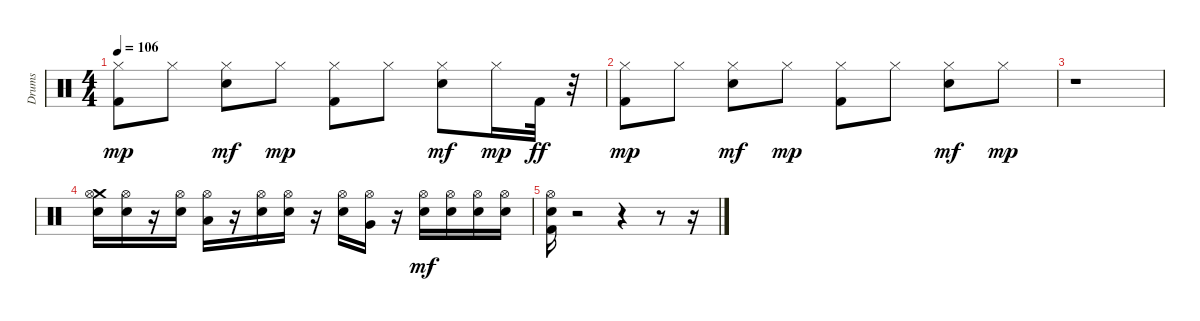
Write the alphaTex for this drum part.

\track ("Drums" "Drums") {instrument percussion}
\staff {score}
\articulation defaults
\ts (4 4)
\tempo 106
\clef neutral
\ks c
("Kick (hit) 2" "Hi-Hat (closed)").8{dy mp} "Hi-Hat (closed)".8 ("Hi-Hat (closed)" "Snare (hit) 2").8{dy mf} "Hi-Hat (closed)".8{dy mp} ("Hi-Hat (closed)" "Kick (hit) 2").8 "Hi-Hat (closed)".8 ("Hi-Hat (closed)" "Snare (hit) 2").8{dy mf} "Hi-Hat (closed)".16{dy mp} "Kick (hit) 2".32{dy ff} r.32 |
("Kick (hit) 2" "Hi-Hat (closed)").8{dy mp} "Hi-Hat (closed)".8 ("Hi-Hat (closed)" "Snare (hit) 2").8{dy mf} "Hi-Hat (closed)".8{dy mp} ("Hi-Hat (closed)" "Kick (hit) 2").8 "Hi-Hat (closed)".8 ("Hi-Hat (closed)" "Snare (hit) 2").8{dy mf} "Hi-Hat (closed)".8{dy mp} |
r.1 |
("Crash medium (hit)" "Snare (hit) 2" "Hi-Hat (open)").16 ("Snare (hit) 2" "Hi-Hat (open)").16 r.16 ("Snare (hit) 2" "Hi-Hat (open)").16 ("Low Tom (hit)" "Hi-Hat (open)").16 r.16 ("Snare (hit) 2" "Hi-Hat (open)").16 ("Snare (hit) 2" "Hi-Hat (open)").16 r.16 ("Snare (hit) 2" "Hi-Hat (open)").16 ("Very Low Tom (hit)" "Hi-Hat (open)").16 r.16 ("Snare (hit) 2" "Hi-Hat (open)").16{dy mf} ("Snare (hit) 2" "Hi-Hat (open)").16 ("Snare (hit) 2" "Hi-Hat (open)").16 ("Snare (hit) 2" "Hi-Hat (open)").16 |
("Snare (hit) 2" "Kick (hit) 2" "Hi-Hat (open)").16 r.2 r.4 r.8 r.16
